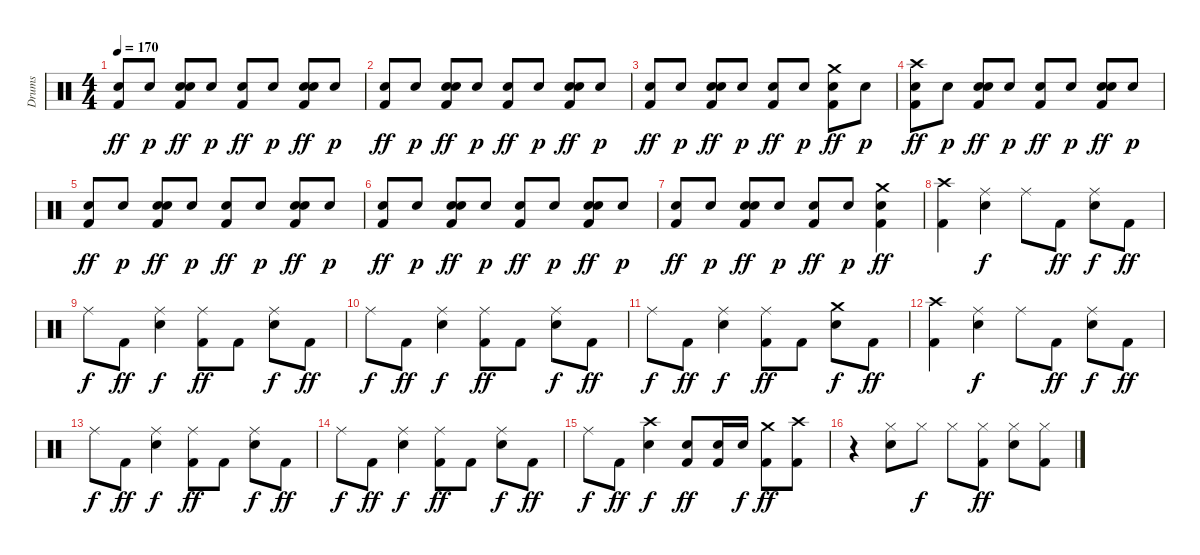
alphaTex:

\track ("Drums" "Drums") {instrument percussion}
\staff {score}
\articulation defaults
\ts (4 4)
\tempo 170
\clef neutral
\ks c
("Snare (hit) 2" "Kick (hit) 2").8{dy ff} "Snare (hit) 2".8{dy p} ("Snare (hit) 2" "Snare (hit) 2" "Kick (hit) 2").8{dy ff} "Snare (hit) 2".8{dy p} ("Snare (hit) 2" "Kick (hit) 2").8{dy ff} "Snare (hit) 2".8{dy p} ("Snare (hit) 2" "Snare (hit) 2" "Kick (hit) 2").8{dy ff} "Snare (hit) 2".8{dy p} |
("Snare (hit) 2" "Kick (hit) 2").8{dy ff} "Snare (hit) 2".8{dy p} ("Snare (hit) 2" "Snare (hit) 2" "Kick (hit) 2").8{dy ff} "Snare (hit) 2".8{dy p} ("Snare (hit) 2" "Kick (hit) 2").8{dy ff} "Snare (hit) 2".8{dy p} ("Snare (hit) 2" "Snare (hit) 2" "Kick (hit) 2").8{dy ff} "Snare (hit) 2".8{dy p} |
("Snare (hit) 2" "Kick (hit) 2").8{dy ff} "Snare (hit) 2".8{dy p} ("Snare (hit) 2" "Snare (hit) 2" "Kick (hit) 2").8{dy ff} "Snare (hit) 2".8{dy p} ("Snare (hit) 2" "Kick (hit) 2").8{dy ff} "Snare (hit) 2".8{dy p} ("Crash medium (hit)" "Snare (hit) 2" "Kick (hit) 2").8{dy ff} "Snare (hit) 2".8{dy p} |
("Crash high (hit)" "Snare (hit) 2" "Kick (hit) 2").8{dy ff} "Snare (hit) 2".8{dy p} ("Snare (hit) 2" "Snare (hit) 2" "Kick (hit) 2").8{dy ff} "Snare (hit) 2".8{dy p} ("Snare (hit) 2" "Kick (hit) 2").8{dy ff} "Snare (hit) 2".8{dy p} ("Snare (hit) 2" "Snare (hit) 2" "Kick (hit) 2").8{dy ff} "Snare (hit) 2".8{dy p} |
("Snare (hit) 2" "Kick (hit) 2").8{dy ff} "Snare (hit) 2".8{dy p} ("Snare (hit) 2" "Snare (hit) 2" "Kick (hit) 2").8{dy ff} "Snare (hit) 2".8{dy p} ("Snare (hit) 2" "Kick (hit) 2").8{dy ff} "Snare (hit) 2".8{dy p} ("Snare (hit) 2" "Snare (hit) 2" "Kick (hit) 2").8{dy ff} "Snare (hit) 2".8{dy p} |
("Snare (hit) 2" "Kick (hit) 2").8{dy ff} "Snare (hit) 2".8{dy p} ("Snare (hit) 2" "Snare (hit) 2" "Kick (hit) 2").8{dy ff} "Snare (hit) 2".8{dy p} ("Snare (hit) 2" "Kick (hit) 2").8{dy ff} "Snare (hit) 2".8{dy p} ("Snare (hit) 2" "Snare (hit) 2" "Kick (hit) 2").8{dy ff} "Snare (hit) 2".8{dy p} |
("Snare (hit) 2" "Kick (hit) 2").8{dy ff} "Snare (hit) 2".8{dy p} ("Snare (hit) 2" "Snare (hit) 2" "Kick (hit) 2").8{dy ff} "Snare (hit) 2".8{dy p} ("Snare (hit) 2" "Kick (hit) 2").8{dy ff} "Snare (hit) 2".8{dy p} ("Crash medium (hit)" "Snare (hit) 2" "Kick (hit) 2").4{dy ff} |
("Kick (hit) 2" "Crash high (hit)").4 ("Ride (middle)" "Snare (hit) 2").4{dy f} "Ride (middle)".8 "Kick (hit) 2".8{dy ff} ("Ride (middle)" "Snare (hit) 2").8{dy f} "Kick (hit) 2".8{dy ff} |
"Ride (middle)".8{dy f} "Kick (hit) 2".8{dy ff} ("Snare (hit) 2" "Ride (middle)").4{dy f} ("Kick (hit) 2" "Ride (middle)").8{dy ff} "Kick (hit) 2".8 ("Snare (hit) 2" "Ride (middle)").8{dy f} "Kick (hit) 2".8{dy ff} |
"Ride (middle)".8{dy f} "Kick (hit) 2".8{dy ff} ("Snare (hit) 2" "Ride (middle)").4{dy f} ("Kick (hit) 2" "Ride (middle)").8{dy ff} "Kick (hit) 2".8 ("Snare (hit) 2" "Ride (middle)").8{dy f} "Kick (hit) 2".8{dy ff} |
"Ride (middle)".8{dy f} "Kick (hit) 2".8{dy ff} ("Snare (hit) 2" "Ride (middle)").4{dy f} ("Kick (hit) 2" "Ride (middle)").8{dy ff} "Kick (hit) 2".8 ("Crash medium (hit)" "Snare (hit) 2").8{dy f} "Kick (hit) 2".8{dy ff} |
("Kick (hit) 2" "Crash high (hit)").4 ("Ride (middle)" "Snare (hit) 2").4{dy f} "Ride (middle)".8 "Kick (hit) 2".8{dy ff} ("Ride (middle)" "Snare (hit) 2").8{dy f} "Kick (hit) 2".8{dy ff} |
"Ride (middle)".8{dy f} "Kick (hit) 2".8{dy ff} ("Snare (hit) 2" "Ride (middle)").4{dy f} ("Kick (hit) 2" "Ride (middle)").8{dy ff} "Kick (hit) 2".8 ("Snare (hit) 2" "Ride (middle)").8{dy f} "Kick (hit) 2".8{dy ff} |
"Ride (middle)".8{dy f} "Kick (hit) 2".8{dy ff} ("Snare (hit) 2" "Ride (middle)").4{dy f} ("Kick (hit) 2" "Ride (middle)").8{dy ff} "Kick (hit) 2".8 ("Snare (hit) 2" "Ride (middle)").8{dy f} "Kick (hit) 2".8{dy ff} |
"Ride (middle)".8{dy f} "Kick (hit) 2".8{dy ff} ("Crash high (hit)" "Snare (hit) 2").4{dy f} ("Snare (hit) 2" "Kick (hit) 2").8{dy ff} ("Snare (hit) 2" "Kick (hit) 2").16 "Snare (hit) 2".16{dy f} ("Kick (hit) 2" "Crash medium (hit)").8{dy ff} ("Crash high (hit)" "Kick (hit) 2").8 |
r.4 ("Hi-Hat (closed)" "Snare (hit) 2").8 "Hi-Hat (closed)".8{dy f} "Hi-Hat (closed)".8 ("Hi-Hat (closed)" "Kick (hit) 2").8{dy ff} ("Hi-Hat (closed)" "Snare (hit) 2").8 ("Hi-Hat (closed)" "Kick (hit) 2").8
